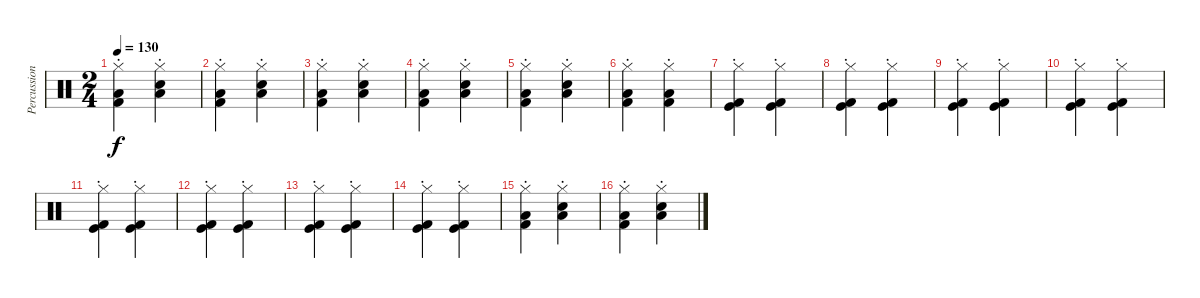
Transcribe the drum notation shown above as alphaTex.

\track ("Percussion" "Percussion") {instrument percussion}
\staff {score}
\articulation defaults
\ts (2 4)
\tempo 130
\clef neutral
\ks c
("Hi-Hat (closed)"{st} "Kick (hit) 2"{st} "Low Floor Tom (hit)"{st}).4{dy f} ("Hi-Hat (closed)" "Snare (hit) 2"{st} "Low Floor Tom (hit)"{st}).4 |
("Hi-Hat (closed)"{st} "Kick (hit) 2"{st} "Low Floor Tom (hit)"{st}).4 ("Hi-Hat (closed)" "Snare (hit) 2"{st} "Low Floor Tom (hit)"{st}).4 |
("Hi-Hat (closed)"{st} "Kick (hit) 2"{st} "Low Floor Tom (hit)"{st}).4 ("Hi-Hat (closed)" "Snare (hit) 2"{st} "Low Floor Tom (hit)"{st}).4 |
("Hi-Hat (closed)"{st} "Kick (hit) 2"{st} "Low Floor Tom (hit)"{st}).4 ("Hi-Hat (closed)" "Snare (hit) 2"{st} "Low Floor Tom (hit)"{st}).4 |
("Hi-Hat (closed)"{st} "Kick (hit) 2"{st} "Low Floor Tom (hit)"{st}).4 ("Hi-Hat (closed)" "Snare (hit) 2"{st} "Low Floor Tom (hit)"{st}).4 |
("Hi-Hat (closed)"{st} "Kick (hit) 2"{st} "Low Floor Tom (hit)"{st}).4 ("Hi-Hat (closed)" "Kick (hit) 2"{st} "Low Floor Tom (hit)"{st}).4 |
("Hi-Hat (closed)"{st} "Kick (hit)"{st} "Kick (hit) 2"{st}).4 ("Hi-Hat (closed)"{st} "Kick (hit)"{st} "Kick (hit) 2"{st}).4 |
("Hi-Hat (closed)"{st} "Kick (hit)"{st} "Kick (hit) 2"{st}).4 ("Hi-Hat (closed)"{st} "Kick (hit)"{st} "Kick (hit) 2"{st}).4 |
("Hi-Hat (closed)"{st} "Kick (hit)"{st} "Kick (hit) 2"{st}).4 ("Hi-Hat (closed)"{st} "Kick (hit)"{st} "Kick (hit) 2"{st}).4 |
("Hi-Hat (closed)"{st} "Kick (hit)"{st} "Kick (hit) 2"{st}).4 ("Hi-Hat (closed)"{st} "Kick (hit)"{st} "Kick (hit) 2"{st}).4 |
("Hi-Hat (closed)"{st} "Kick (hit)"{st} "Kick (hit) 2"{st}).4 ("Hi-Hat (closed)"{st} "Kick (hit)"{st} "Kick (hit) 2"{st}).4 |
("Hi-Hat (closed)"{st} "Kick (hit)"{st} "Kick (hit) 2"{st}).4 ("Hi-Hat (closed)"{st} "Kick (hit)"{st} "Kick (hit) 2"{st}).4 |
("Hi-Hat (closed)"{st} "Kick (hit)"{st} "Kick (hit) 2"{st}).4 ("Hi-Hat (closed)"{st} "Kick (hit)"{st} "Kick (hit) 2"{st}).4 |
("Hi-Hat (closed)"{st} "Kick (hit)"{st} "Kick (hit) 2"{st}).4 ("Hi-Hat (closed)"{st} "Kick (hit)"{st} "Kick (hit) 2"{st}).4 |
("Hi-Hat (closed)"{st} "Kick (hit) 2"{st} "Low Floor Tom (hit)"{st}).4 ("Hi-Hat (closed)" "Snare (hit) 2"{st} "Low Floor Tom (hit)"{st}).4 |
("Hi-Hat (closed)"{st} "Kick (hit) 2"{st} "Low Floor Tom (hit)"{st}).4 ("Hi-Hat (closed)" "Snare (hit) 2"{st} "Low Floor Tom (hit)"{st}).4
